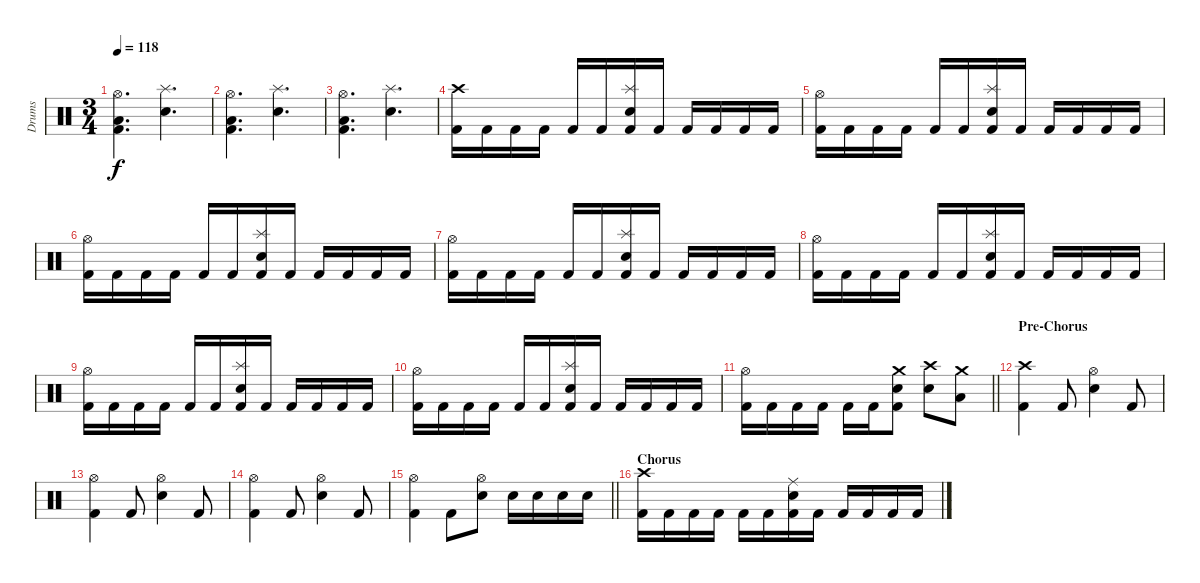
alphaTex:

\track ("Drums" "Drums") {instrument percussion}
\staff {score}
\articulation defaults
\ts (3 4)
\tempo 118
\clef neutral
\ks c
("Hi-Hat (open)" "Low Floor Tom (hit)" "Kick (hit) 2").4{d dy f} ("Splash (hit)" "Snare (hit) 2").4{d} |
("Hi-Hat (open)" "Low Floor Tom (hit)" "Kick (hit) 2").4{d} ("Splash (hit)" "Snare (hit) 2").4{d} |
("Hi-Hat (open)" "Low Floor Tom (hit)" "Kick (hit) 2").4{d} ("Splash (hit)" "Snare (hit) 2").4{d} |
("Crash high (hit)" "Kick (hit) 2").16 "Kick (hit) 2".16 "Kick (hit) 2".16 "Kick (hit) 2".16 "Kick (hit) 2".16 "Kick (hit) 2".16 ("Splash (hit)" "Snare (hit) 2" "Kick (hit) 2").16 "Kick (hit) 2".16 "Kick (hit) 2".16 "Kick (hit) 2".16 "Kick (hit) 2".16 "Kick (hit) 2".16 |
("Hi-Hat (open)" "Kick (hit) 2").16 "Kick (hit) 2".16 "Kick (hit) 2".16 "Kick (hit) 2".16 "Kick (hit) 2".16 "Kick (hit) 2".16 ("Splash (hit)" "Snare (hit) 2" "Kick (hit) 2").16 "Kick (hit) 2".16 "Kick (hit) 2".16 "Kick (hit) 2".16 "Kick (hit) 2".16 "Kick (hit) 2".16 |
("Hi-Hat (open)" "Kick (hit) 2").16 "Kick (hit) 2".16 "Kick (hit) 2".16 "Kick (hit) 2".16 "Kick (hit) 2".16 "Kick (hit) 2".16 ("Splash (hit)" "Snare (hit) 2" "Kick (hit) 2").16 "Kick (hit) 2".16 "Kick (hit) 2".16 "Kick (hit) 2".16 "Kick (hit) 2".16 "Kick (hit) 2".16 |
("Hi-Hat (open)" "Kick (hit) 2").16 "Kick (hit) 2".16 "Kick (hit) 2".16 "Kick (hit) 2".16 "Kick (hit) 2".16 "Kick (hit) 2".16 ("Splash (hit)" "Snare (hit) 2" "Kick (hit) 2").16 "Kick (hit) 2".16 "Kick (hit) 2".16 "Kick (hit) 2".16 "Kick (hit) 2".16 "Kick (hit) 2".16 |
("Hi-Hat (open)" "Kick (hit) 2").16 "Kick (hit) 2".16 "Kick (hit) 2".16 "Kick (hit) 2".16 "Kick (hit) 2".16 "Kick (hit) 2".16 ("Splash (hit)" "Snare (hit) 2" "Kick (hit) 2").16 "Kick (hit) 2".16 "Kick (hit) 2".16 "Kick (hit) 2".16 "Kick (hit) 2".16 "Kick (hit) 2".16 |
("Hi-Hat (open)" "Kick (hit) 2").16 "Kick (hit) 2".16 "Kick (hit) 2".16 "Kick (hit) 2".16 "Kick (hit) 2".16 "Kick (hit) 2".16 ("Splash (hit)" "Snare (hit) 2" "Kick (hit) 2").16 "Kick (hit) 2".16 "Kick (hit) 2".16 "Kick (hit) 2".16 "Kick (hit) 2".16 "Kick (hit) 2".16 |
("Hi-Hat (open)" "Kick (hit) 2").16 "Kick (hit) 2".16 "Kick (hit) 2".16 "Kick (hit) 2".16 "Kick (hit) 2".16 "Kick (hit) 2".16 ("Splash (hit)" "Snare (hit) 2" "Kick (hit) 2").16 "Kick (hit) 2".16 "Kick (hit) 2".16 "Kick (hit) 2".16 "Kick (hit) 2".16 "Kick (hit) 2".16 |
\barLineRight lightlight
("Hi-Hat (open)" "Kick (hit) 2").16 "Kick (hit) 2".16 "Kick (hit) 2".16 "Kick (hit) 2".16 "Kick (hit) 2".16 "Kick (hit) 2".16 ("Crash medium (hit)" "Snare (hit) 2" "Kick (hit) 2").8 ("Crash high (hit)" "Snare (hit) 2").8 ("Crash medium (hit)" "Low Tom (hit)").8 |
\section ("" "Pre-Chorus")
("Crash high (hit)" "Kick (hit) 2").4 "Kick (hit) 2".8 ("Hi-Hat (open)" "Snare (hit) 2").4 "Kick (hit) 2".8 |
("Hi-Hat (open)" "Kick (hit) 2").4 "Kick (hit) 2".8 ("Hi-Hat (open)" "Snare (hit) 2").4 "Kick (hit) 2".8 |
("Hi-Hat (open)" "Kick (hit) 2").4 "Kick (hit) 2".8 ("Hi-Hat (open)" "Snare (hit) 2").4 "Kick (hit) 2".8 |
\barLineRight lightlight
("Hi-Hat (open)" "Kick (hit) 2").4 "Kick (hit) 2".8 ("Hi-Hat (open)" "Snare (hit) 2").8 "Snare (hit) 2".16 "Snare (hit) 2".16 "Snare (hit) 2".16 "Snare (hit) 2".16 |
\section ("" "Chorus")
("Crash high (hit)" "Kick (hit) 2").16 "Kick (hit) 2".16 "Kick (hit) 2".16 "Kick (hit) 2".16 "Kick (hit) 2".16 "Kick (hit) 2".16 ("Ride (middle)" "Snare (hit) 2" "Kick (hit) 2").16 "Kick (hit) 2".16 "Kick (hit) 2".16 "Kick (hit) 2".16 "Kick (hit) 2".16 "Kick (hit) 2".16
